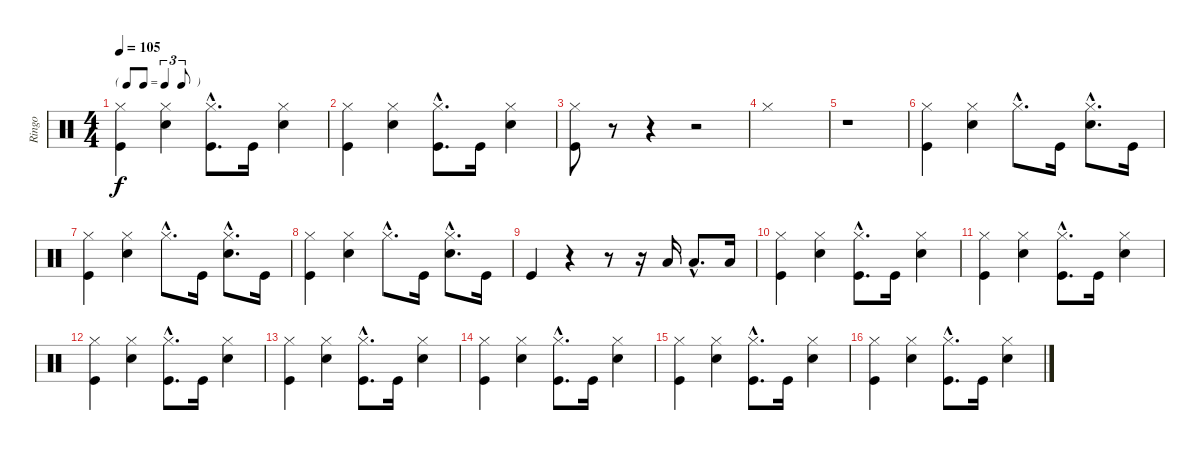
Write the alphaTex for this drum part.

\track ("Ringo" "Ringo") {instrument percussion}
\staff {score}
\articulation defaults
\ts (4 4)
\tf triplet8th
\tempo 105
\clef neutral
\ks c
("Hi-Hat (closed)" "Kick (hit)").4{dy f} ("Hi-Hat (closed)" "Snare (hit) 2").4 ("Hi-Hat (closed)"{hac} "Kick (hit)"{hac}).8{d} "Kick (hit)".16 ("Hi-Hat (closed)" "Snare (hit) 2").4 |
("Hi-Hat (closed)" "Kick (hit)").4 ("Hi-Hat (closed)" "Snare (hit) 2").4 ("Hi-Hat (closed)"{hac} "Kick (hit)"{hac}).8{d} "Kick (hit)".16 ("Hi-Hat (closed)" "Snare (hit) 2").4 |
("Hi-Hat (closed)" "Kick (hit)").8 r.8 r.4 r.2 |
"Hi-Hat (closed)".1 |
r.1 |
("Hi-Hat (closed)" "Kick (hit)").4 ("Hi-Hat (closed)" "Snare (hit) 2").4 "Hi-Hat (closed)"{hac}.8{d} "Kick (hit)".16 ("Hi-Hat (closed)"{hac} "Snare (hit) 2"{hac}).8{d} "Kick (hit)".16 |
("Hi-Hat (closed)" "Kick (hit)").4 ("Hi-Hat (closed)" "Snare (hit) 2").4 "Hi-Hat (closed)"{hac}.8{d} "Kick (hit)".16 ("Hi-Hat (closed)"{hac} "Snare (hit) 2"{hac}).8{d} "Kick (hit)".16 |
("Hi-Hat (closed)" "Kick (hit)").4 ("Hi-Hat (closed)" "Snare (hit) 2").4 "Hi-Hat (closed)"{hac}.8{d} "Kick (hit)".16 ("Hi-Hat (closed)"{hac} "Snare (hit) 2"{hac}).8{d} "Kick (hit)".16 |
"Kick (hit)".4 r.4 r.8 r.16 "Low Floor Tom (hit)".16 "Low Floor Tom (hit)"{hac}.8{d} "Low Floor Tom (hit)".16 |
("Hi-Hat (closed)" "Kick (hit)").4 ("Hi-Hat (closed)" "Snare (hit) 2").4 ("Hi-Hat (closed)"{hac} "Kick (hit)"{hac}).8{d} "Kick (hit)".16 ("Hi-Hat (closed)" "Snare (hit) 2").4 |
("Hi-Hat (closed)" "Kick (hit)").4 ("Hi-Hat (closed)" "Snare (hit) 2").4 ("Hi-Hat (closed)"{hac} "Kick (hit)"{hac}).8{d} "Kick (hit)".16 ("Hi-Hat (closed)" "Snare (hit) 2").4 |
("Hi-Hat (closed)" "Kick (hit)").4 ("Hi-Hat (closed)" "Snare (hit) 2").4 ("Hi-Hat (closed)"{hac} "Kick (hit)"{hac}).8{d} "Kick (hit)".16 ("Hi-Hat (closed)" "Snare (hit) 2").4 |
("Hi-Hat (closed)" "Kick (hit)").4 ("Hi-Hat (closed)" "Snare (hit) 2").4 ("Hi-Hat (closed)"{hac} "Kick (hit)"{hac}).8{d} "Kick (hit)".16 ("Hi-Hat (closed)" "Snare (hit) 2").4 |
("Hi-Hat (closed)" "Kick (hit)").4 ("Hi-Hat (closed)" "Snare (hit) 2").4 ("Hi-Hat (closed)"{hac} "Kick (hit)"{hac}).8{d} "Kick (hit)".16 ("Hi-Hat (closed)" "Snare (hit) 2").4 |
("Hi-Hat (closed)" "Kick (hit)").4 ("Hi-Hat (closed)" "Snare (hit) 2").4 ("Hi-Hat (closed)"{hac} "Kick (hit)"{hac}).8{d} "Kick (hit)".16 ("Hi-Hat (closed)" "Snare (hit) 2").4 |
("Hi-Hat (closed)" "Kick (hit)").4 ("Hi-Hat (closed)" "Snare (hit) 2").4 ("Hi-Hat (closed)"{hac} "Kick (hit)"{hac}).8{d} "Kick (hit)".16 ("Hi-Hat (closed)" "Snare (hit) 2").4
